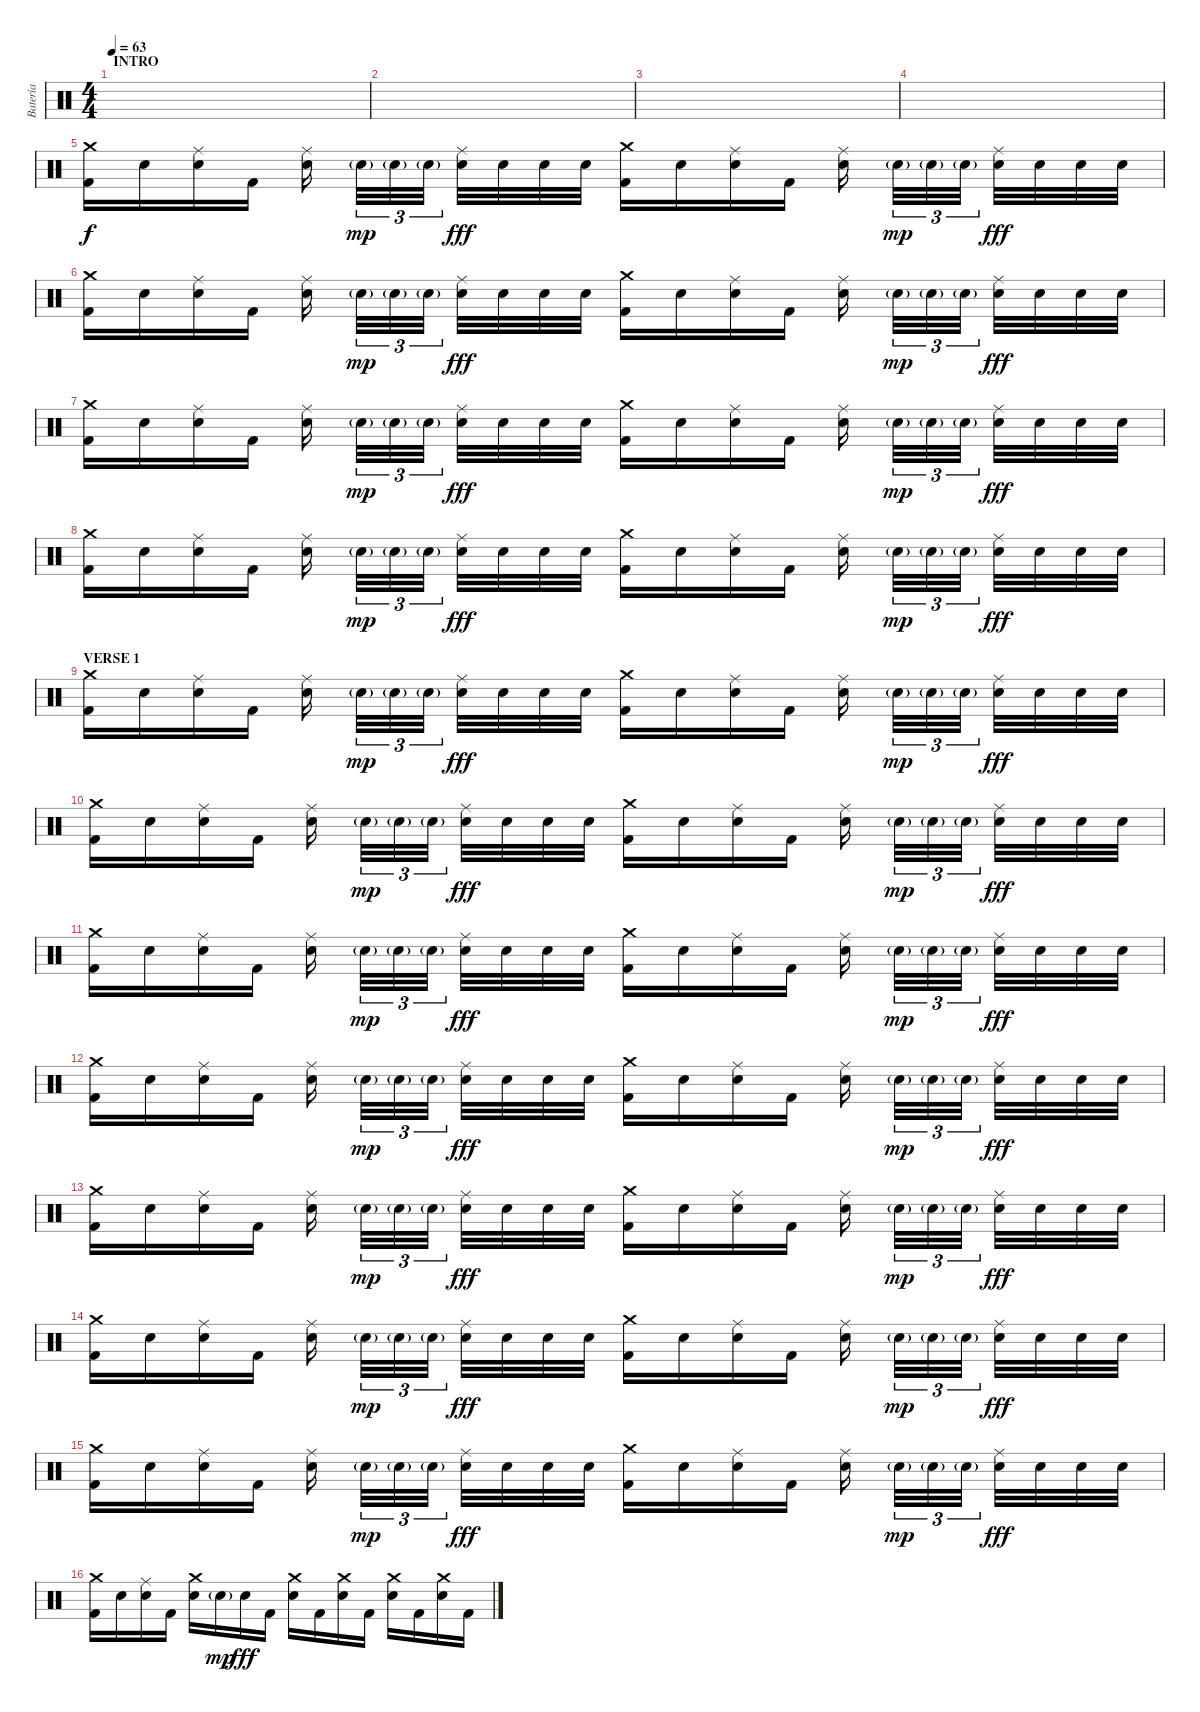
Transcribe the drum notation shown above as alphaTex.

\track ("Batería" "Batería") {instrument percussion}
\staff {score}
\articulation defaults
\ts (4 4)
\section ("" "INTRO")
\tempo 63
\clef neutral
\ks c
|
|
|
|
("Crash medium (hit)" "Kick (hit) 2").16 "Electric Snare (hit)".16 ("Electric Snare (hit)" "Ride (middle)").16 "Kick (hit) 2".16 ("Electric Snare (hit)" "Ride (middle)").16 "Electric Snare (hit)"{g}.32{tu (3 2) dy mp} "Electric Snare (hit)"{g}.32{tu (3 2)} "Electric Snare (hit)"{g}.32{tu (3 2)} ("Electric Snare (hit)" "Ride (middle)").32{dy fff} "Electric Snare (hit)".32 "Electric Snare (hit)".32 "Electric Snare (hit)".32 ("Crash medium (hit)" "Kick (hit) 2").16 "Electric Snare (hit)".16 ("Electric Snare (hit)" "Ride (middle)").16 "Kick (hit) 2".16 ("Electric Snare (hit)" "Ride (middle)").16 "Electric Snare (hit)"{g}.32{tu (3 2) dy mp} "Electric Snare (hit)"{g}.32{tu (3 2)} "Electric Snare (hit)"{g}.32{tu (3 2)} ("Electric Snare (hit)" "Ride (middle)").32{dy fff} "Electric Snare (hit)".32 "Electric Snare (hit)".32 "Electric Snare (hit)".32 |
("Crash medium (hit)" "Kick (hit) 2").16 "Electric Snare (hit)".16 ("Electric Snare (hit)" "Ride (middle)").16 "Kick (hit) 2".16 ("Electric Snare (hit)" "Ride (middle)").16 "Electric Snare (hit)"{g}.32{tu (3 2) dy mp} "Electric Snare (hit)"{g}.32{tu (3 2)} "Electric Snare (hit)"{g}.32{tu (3 2)} ("Electric Snare (hit)" "Ride (middle)").32{dy fff} "Electric Snare (hit)".32 "Electric Snare (hit)".32 "Electric Snare (hit)".32 ("Crash medium (hit)" "Kick (hit) 2").16 "Electric Snare (hit)".16 ("Electric Snare (hit)" "Ride (middle)").16 "Kick (hit) 2".16 ("Electric Snare (hit)" "Ride (middle)").16 "Electric Snare (hit)"{g}.32{tu (3 2) dy mp} "Electric Snare (hit)"{g}.32{tu (3 2)} "Electric Snare (hit)"{g}.32{tu (3 2)} ("Electric Snare (hit)" "Ride (middle)").32{dy fff} "Electric Snare (hit)".32 "Electric Snare (hit)".32 "Electric Snare (hit)".32 |
("Crash medium (hit)" "Kick (hit) 2").16 "Electric Snare (hit)".16 ("Electric Snare (hit)" "Ride (middle)").16 "Kick (hit) 2".16 ("Electric Snare (hit)" "Ride (middle)").16 "Electric Snare (hit)"{g}.32{tu (3 2) dy mp} "Electric Snare (hit)"{g}.32{tu (3 2)} "Electric Snare (hit)"{g}.32{tu (3 2)} ("Electric Snare (hit)" "Ride (middle)").32{dy fff} "Electric Snare (hit)".32 "Electric Snare (hit)".32 "Electric Snare (hit)".32 ("Crash medium (hit)" "Kick (hit) 2").16 "Electric Snare (hit)".16 ("Electric Snare (hit)" "Ride (middle)").16 "Kick (hit) 2".16 ("Electric Snare (hit)" "Ride (middle)").16 "Electric Snare (hit)"{g}.32{tu (3 2) dy mp} "Electric Snare (hit)"{g}.32{tu (3 2)} "Electric Snare (hit)"{g}.32{tu (3 2)} ("Electric Snare (hit)" "Ride (middle)").32{dy fff} "Electric Snare (hit)".32 "Electric Snare (hit)".32 "Electric Snare (hit)".32 |
("Crash medium (hit)" "Kick (hit) 2").16 "Electric Snare (hit)".16 ("Electric Snare (hit)" "Ride (middle)").16 "Kick (hit) 2".16 ("Electric Snare (hit)" "Ride (middle)").16 "Electric Snare (hit)"{g}.32{tu (3 2) dy mp} "Electric Snare (hit)"{g}.32{tu (3 2)} "Electric Snare (hit)"{g}.32{tu (3 2)} ("Electric Snare (hit)" "Ride (middle)").32{dy fff} "Electric Snare (hit)".32 "Electric Snare (hit)".32 "Electric Snare (hit)".32 ("Crash medium (hit)" "Kick (hit) 2").16 "Electric Snare (hit)".16 ("Electric Snare (hit)" "Ride (middle)").16 "Kick (hit) 2".16 ("Electric Snare (hit)" "Ride (middle)").16 "Electric Snare (hit)"{g}.32{tu (3 2) dy mp} "Electric Snare (hit)"{g}.32{tu (3 2)} "Electric Snare (hit)"{g}.32{tu (3 2)} ("Electric Snare (hit)" "Ride (middle)").32{dy fff} "Electric Snare (hit)".32 "Electric Snare (hit)".32 "Electric Snare (hit)".32 |
\section ("" "VERSE 1")
("Crash medium (hit)" "Kick (hit) 2").16 "Electric Snare (hit)".16 ("Electric Snare (hit)" "Ride (middle)").16 "Kick (hit) 2".16 ("Electric Snare (hit)" "Ride (middle)").16 "Electric Snare (hit)"{g}.32{tu (3 2) dy mp} "Electric Snare (hit)"{g}.32{tu (3 2)} "Electric Snare (hit)"{g}.32{tu (3 2)} ("Electric Snare (hit)" "Ride (middle)").32{dy fff} "Electric Snare (hit)".32 "Electric Snare (hit)".32 "Electric Snare (hit)".32 ("Crash medium (hit)" "Kick (hit) 2").16 "Electric Snare (hit)".16 ("Electric Snare (hit)" "Ride (middle)").16 "Kick (hit) 2".16 ("Electric Snare (hit)" "Ride (middle)").16 "Electric Snare (hit)"{g}.32{tu (3 2) dy mp} "Electric Snare (hit)"{g}.32{tu (3 2)} "Electric Snare (hit)"{g}.32{tu (3 2)} ("Electric Snare (hit)" "Ride (middle)").32{dy fff} "Electric Snare (hit)".32 "Electric Snare (hit)".32 "Electric Snare (hit)".32 |
("Crash medium (hit)" "Kick (hit) 2").16 "Electric Snare (hit)".16 ("Electric Snare (hit)" "Ride (middle)").16 "Kick (hit) 2".16 ("Electric Snare (hit)" "Ride (middle)").16 "Electric Snare (hit)"{g}.32{tu (3 2) dy mp} "Electric Snare (hit)"{g}.32{tu (3 2)} "Electric Snare (hit)"{g}.32{tu (3 2)} ("Electric Snare (hit)" "Ride (middle)").32{dy fff} "Electric Snare (hit)".32 "Electric Snare (hit)".32 "Electric Snare (hit)".32 ("Crash medium (hit)" "Kick (hit) 2").16 "Electric Snare (hit)".16 ("Electric Snare (hit)" "Ride (middle)").16 "Kick (hit) 2".16 ("Electric Snare (hit)" "Ride (middle)").16 "Electric Snare (hit)"{g}.32{tu (3 2) dy mp} "Electric Snare (hit)"{g}.32{tu (3 2)} "Electric Snare (hit)"{g}.32{tu (3 2)} ("Electric Snare (hit)" "Ride (middle)").32{dy fff} "Electric Snare (hit)".32 "Electric Snare (hit)".32 "Electric Snare (hit)".32 |
("Crash medium (hit)" "Kick (hit) 2").16 "Electric Snare (hit)".16 ("Electric Snare (hit)" "Ride (middle)").16 "Kick (hit) 2".16 ("Electric Snare (hit)" "Ride (middle)").16 "Electric Snare (hit)"{g}.32{tu (3 2) dy mp} "Electric Snare (hit)"{g}.32{tu (3 2)} "Electric Snare (hit)"{g}.32{tu (3 2)} ("Electric Snare (hit)" "Ride (middle)").32{dy fff} "Electric Snare (hit)".32 "Electric Snare (hit)".32 "Electric Snare (hit)".32 ("Crash medium (hit)" "Kick (hit) 2").16 "Electric Snare (hit)".16 ("Electric Snare (hit)" "Ride (middle)").16 "Kick (hit) 2".16 ("Electric Snare (hit)" "Ride (middle)").16 "Electric Snare (hit)"{g}.32{tu (3 2) dy mp} "Electric Snare (hit)"{g}.32{tu (3 2)} "Electric Snare (hit)"{g}.32{tu (3 2)} ("Electric Snare (hit)" "Ride (middle)").32{dy fff} "Electric Snare (hit)".32 "Electric Snare (hit)".32 "Electric Snare (hit)".32 |
("Crash medium (hit)" "Kick (hit) 2").16 "Electric Snare (hit)".16 ("Electric Snare (hit)" "Ride (middle)").16 "Kick (hit) 2".16 ("Electric Snare (hit)" "Ride (middle)").16 "Electric Snare (hit)"{g}.32{tu (3 2) dy mp} "Electric Snare (hit)"{g}.32{tu (3 2)} "Electric Snare (hit)"{g}.32{tu (3 2)} ("Electric Snare (hit)" "Ride (middle)").32{dy fff} "Electric Snare (hit)".32 "Electric Snare (hit)".32 "Electric Snare (hit)".32 ("Crash medium (hit)" "Kick (hit) 2").16 "Electric Snare (hit)".16 ("Electric Snare (hit)" "Ride (middle)").16 "Kick (hit) 2".16 ("Electric Snare (hit)" "Ride (middle)").16 "Electric Snare (hit)"{g}.32{tu (3 2) dy mp} "Electric Snare (hit)"{g}.32{tu (3 2)} "Electric Snare (hit)"{g}.32{tu (3 2)} ("Electric Snare (hit)" "Ride (middle)").32{dy fff} "Electric Snare (hit)".32 "Electric Snare (hit)".32 "Electric Snare (hit)".32 |
("Crash medium (hit)" "Kick (hit) 2").16 "Electric Snare (hit)".16 ("Electric Snare (hit)" "Ride (middle)").16 "Kick (hit) 2".16 ("Electric Snare (hit)" "Ride (middle)").16 "Electric Snare (hit)"{g}.32{tu (3 2) dy mp} "Electric Snare (hit)"{g}.32{tu (3 2)} "Electric Snare (hit)"{g}.32{tu (3 2)} ("Electric Snare (hit)" "Ride (middle)").32{dy fff} "Electric Snare (hit)".32 "Electric Snare (hit)".32 "Electric Snare (hit)".32 ("Crash medium (hit)" "Kick (hit) 2").16 "Electric Snare (hit)".16 ("Electric Snare (hit)" "Ride (middle)").16 "Kick (hit) 2".16 ("Electric Snare (hit)" "Ride (middle)").16 "Electric Snare (hit)"{g}.32{tu (3 2) dy mp} "Electric Snare (hit)"{g}.32{tu (3 2)} "Electric Snare (hit)"{g}.32{tu (3 2)} ("Electric Snare (hit)" "Ride (middle)").32{dy fff} "Electric Snare (hit)".32 "Electric Snare (hit)".32 "Electric Snare (hit)".32 |
("Crash medium (hit)" "Kick (hit) 2").16 "Electric Snare (hit)".16 ("Electric Snare (hit)" "Ride (middle)").16 "Kick (hit) 2".16 ("Electric Snare (hit)" "Ride (middle)").16 "Electric Snare (hit)"{g}.32{tu (3 2) dy mp} "Electric Snare (hit)"{g}.32{tu (3 2)} "Electric Snare (hit)"{g}.32{tu (3 2)} ("Electric Snare (hit)" "Ride (middle)").32{dy fff} "Electric Snare (hit)".32 "Electric Snare (hit)".32 "Electric Snare (hit)".32 ("Crash medium (hit)" "Kick (hit) 2").16 "Electric Snare (hit)".16 ("Electric Snare (hit)" "Ride (middle)").16 "Kick (hit) 2".16 ("Electric Snare (hit)" "Ride (middle)").16 "Electric Snare (hit)"{g}.32{tu (3 2) dy mp} "Electric Snare (hit)"{g}.32{tu (3 2)} "Electric Snare (hit)"{g}.32{tu (3 2)} ("Electric Snare (hit)" "Ride (middle)").32{dy fff} "Electric Snare (hit)".32 "Electric Snare (hit)".32 "Electric Snare (hit)".32 |
("Crash medium (hit)" "Kick (hit) 2").16 "Electric Snare (hit)".16 ("Electric Snare (hit)" "Ride (middle)").16 "Kick (hit) 2".16 ("Electric Snare (hit)" "Ride (middle)").16 "Electric Snare (hit)"{g}.32{tu (3 2) dy mp} "Electric Snare (hit)"{g}.32{tu (3 2)} "Electric Snare (hit)"{g}.32{tu (3 2)} ("Electric Snare (hit)" "Ride (middle)").32{dy fff} "Electric Snare (hit)".32 "Electric Snare (hit)".32 "Electric Snare (hit)".32 ("Crash medium (hit)" "Kick (hit) 2").16 "Electric Snare (hit)".16 ("Electric Snare (hit)" "Ride (middle)").16 "Kick (hit) 2".16 ("Electric Snare (hit)" "Ride (middle)").16 "Electric Snare (hit)"{g}.32{tu (3 2) dy mp} "Electric Snare (hit)"{g}.32{tu (3 2)} "Electric Snare (hit)"{g}.32{tu (3 2)} ("Electric Snare (hit)" "Ride (middle)").32{dy fff} "Electric Snare (hit)".32 "Electric Snare (hit)".32 "Electric Snare (hit)".32 |
("Crash medium (hit)" "Kick (hit) 2").16 "Electric Snare (hit)".16 ("Electric Snare (hit)" "Ride (middle)").16 "Kick (hit) 2".16 ("Crash medium (hit)" "Electric Snare (hit)").16 "Electric Snare (hit)"{g}.16{dy mp} "Electric Snare (hit)".16{dy fff} "Kick (hit) 2".16 ("Crash medium (hit)" "Electric Snare (hit)").16 "Kick (hit) 2".16 ("Crash medium (hit)" "Electric Snare (hit)").16 "Kick (hit) 2".16 ("Crash medium (hit)" "Electric Snare (hit)").16 "Kick (hit) 2".16 ("Crash medium (hit)" "Electric Snare (hit)").16 "Kick (hit) 2".16
